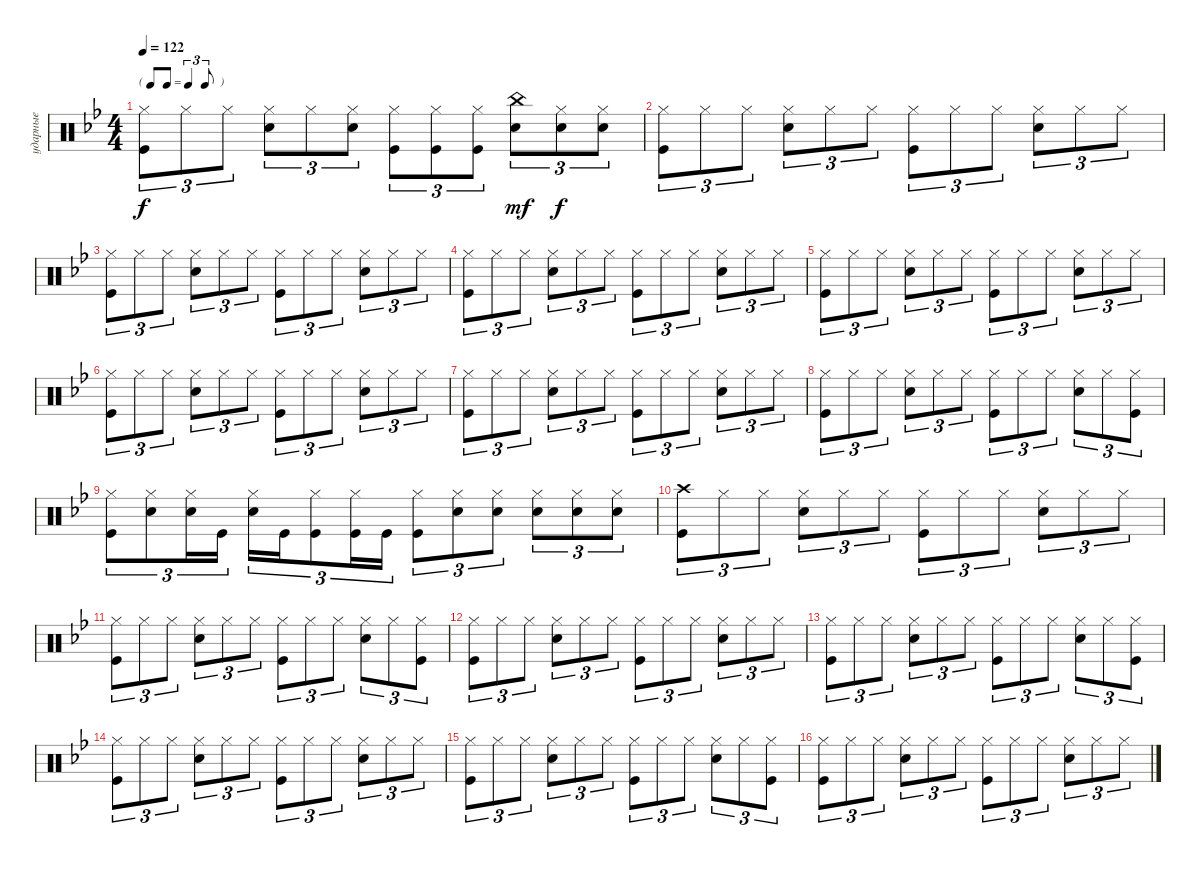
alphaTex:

\track ("ударные" "ударные") {instrument percussion}
\staff {score}
\articulation defaults
\ts (4 4)
\tf triplet8th
\tempo 122
\clef neutral
\ks gminor
("Hi-Hat (closed)" "Kick (hit)").8{tu (3 2) dy f} "Hi-Hat (closed)".8{tu (3 2)} "Hi-Hat (closed)".8{tu (3 2)} ("Hi-Hat (closed)" "Snare (hit) 2").8{tu (3 2)} "Hi-Hat (closed)".8{tu (3 2)} ("Hi-Hat (closed)" "Snare (hit) 2").8{tu (3 2)} ("Hi-Hat (closed)" "Kick (hit)").8{tu (3 2)} ("Hi-Hat (closed)" "Kick (hit)").8{tu (3 2)} ("Hi-Hat (closed)" "Kick (hit)").8{tu (3 2)} ("Snare (hit) 2" "China (hit)").8{tu (3 2) dy mf} ("Hi-Hat (closed)" "Snare (hit) 2").8{tu (3 2) dy f} ("Hi-Hat (closed)" "Snare (hit) 2").8{tu (3 2)} |
("Hi-Hat (closed)" "Kick (hit)").8{tu (3 2)} "Hi-Hat (closed)".8{tu (3 2)} "Hi-Hat (closed)".8{tu (3 2)} ("Hi-Hat (closed)" "Snare (hit) 2").8{tu (3 2)} "Hi-Hat (closed)".8{tu (3 2)} "Hi-Hat (closed)".8{tu (3 2)} ("Hi-Hat (closed)" "Kick (hit)").8{tu (3 2)} "Hi-Hat (closed)".8{tu (3 2)} "Hi-Hat (closed)".8{tu (3 2)} ("Hi-Hat (closed)" "Snare (hit) 2").8{tu (3 2)} "Hi-Hat (closed)".8{tu (3 2)} "Hi-Hat (closed)".8{tu (3 2)} |
("Hi-Hat (closed)" "Kick (hit)").8{tu (3 2)} "Hi-Hat (closed)".8{tu (3 2)} "Hi-Hat (closed)".8{tu (3 2)} ("Hi-Hat (closed)" "Snare (hit) 2").8{tu (3 2)} "Hi-Hat (closed)".8{tu (3 2)} "Hi-Hat (closed)".8{tu (3 2)} ("Hi-Hat (closed)" "Kick (hit)").8{tu (3 2)} "Hi-Hat (closed)".8{tu (3 2)} "Hi-Hat (closed)".8{tu (3 2)} ("Hi-Hat (closed)" "Snare (hit) 2").8{tu (3 2)} "Hi-Hat (closed)".8{tu (3 2)} "Hi-Hat (closed)".8{tu (3 2)} |
("Hi-Hat (closed)" "Kick (hit)").8{tu (3 2)} "Hi-Hat (closed)".8{tu (3 2)} "Hi-Hat (closed)".8{tu (3 2)} ("Hi-Hat (closed)" "Snare (hit) 2").8{tu (3 2)} "Hi-Hat (closed)".8{tu (3 2)} "Hi-Hat (closed)".8{tu (3 2)} ("Hi-Hat (closed)" "Kick (hit)").8{tu (3 2)} "Hi-Hat (closed)".8{tu (3 2)} "Hi-Hat (closed)".8{tu (3 2)} ("Hi-Hat (closed)" "Snare (hit) 2").8{tu (3 2)} "Hi-Hat (closed)".8{tu (3 2)} "Hi-Hat (closed)".8{tu (3 2)} |
("Hi-Hat (closed)" "Kick (hit)").8{tu (3 2)} "Hi-Hat (closed)".8{tu (3 2)} "Hi-Hat (closed)".8{tu (3 2)} ("Hi-Hat (closed)" "Snare (hit) 2").8{tu (3 2)} "Hi-Hat (closed)".8{tu (3 2)} "Hi-Hat (closed)".8{tu (3 2)} ("Hi-Hat (closed)" "Kick (hit)").8{tu (3 2)} "Hi-Hat (closed)".8{tu (3 2)} "Hi-Hat (closed)".8{tu (3 2)} ("Hi-Hat (closed)" "Snare (hit) 2").8{tu (3 2)} "Hi-Hat (closed)".8{tu (3 2)} "Hi-Hat (closed)".8{tu (3 2)} |
("Hi-Hat (closed)" "Kick (hit)").8{tu (3 2)} "Hi-Hat (closed)".8{tu (3 2)} "Hi-Hat (closed)".8{tu (3 2)} ("Hi-Hat (closed)" "Snare (hit) 2").8{tu (3 2)} "Hi-Hat (closed)".8{tu (3 2)} "Hi-Hat (closed)".8{tu (3 2)} ("Hi-Hat (closed)" "Kick (hit)").8{tu (3 2)} "Hi-Hat (closed)".8{tu (3 2)} "Hi-Hat (closed)".8{tu (3 2)} ("Hi-Hat (closed)" "Snare (hit) 2").8{tu (3 2)} "Hi-Hat (closed)".8{tu (3 2)} "Hi-Hat (closed)".8{tu (3 2)} |
("Hi-Hat (closed)" "Kick (hit)").8{tu (3 2)} "Hi-Hat (closed)".8{tu (3 2)} "Hi-Hat (closed)".8{tu (3 2)} ("Hi-Hat (closed)" "Snare (hit) 2").8{tu (3 2)} "Hi-Hat (closed)".8{tu (3 2)} "Hi-Hat (closed)".8{tu (3 2)} ("Hi-Hat (closed)" "Kick (hit)").8{tu (3 2)} "Hi-Hat (closed)".8{tu (3 2)} "Hi-Hat (closed)".8{tu (3 2)} ("Hi-Hat (closed)" "Snare (hit) 2").8{tu (3 2)} "Hi-Hat (closed)".8{tu (3 2)} "Hi-Hat (closed)".8{tu (3 2)} |
("Hi-Hat (closed)" "Kick (hit)").8{tu (3 2)} "Hi-Hat (closed)".8{tu (3 2)} "Hi-Hat (closed)".8{tu (3 2)} ("Hi-Hat (closed)" "Snare (hit) 2").8{tu (3 2)} "Hi-Hat (closed)".8{tu (3 2)} "Hi-Hat (closed)".8{tu (3 2)} ("Hi-Hat (closed)" "Kick (hit)").8{tu (3 2)} "Hi-Hat (closed)".8{tu (3 2)} "Hi-Hat (closed)".8{tu (3 2)} ("Hi-Hat (closed)" "Snare (hit) 2").8{tu (3 2)} "Hi-Hat (closed)".8{tu (3 2)} ("Hi-Hat (closed)" "Kick (hit)").8{tu (3 2)} |
("Hi-Hat (closed)" "Kick (hit)").8{tu (3 2)} ("Hi-Hat (closed)" "Snare (hit) 2").8{tu (3 2)} ("Hi-Hat (closed)" "Snare (hit) 2").16{tu (3 2)} "Kick (hit)".16{tu (3 2)} ("Hi-Hat (closed)" "Snare (hit) 2").16{tu (3 2)} "Kick (hit)".16{tu (3 2)} ("Hi-Hat (closed)" "Kick (hit)").8{tu (3 2)} ("Hi-Hat (closed)" "Kick (hit)").16{tu (3 2)} "Kick (hit)".16{tu (3 2)} ("Hi-Hat (closed)" "Kick (hit)").8{tu (3 2)} ("Hi-Hat (closed)" "Snare (hit) 2").8{tu (3 2)} ("Hi-Hat (closed)" "Snare (hit) 2").8{tu (3 2)} ("Hi-Hat (closed)" "Snare (hit) 2").8{tu (3 2)} ("Hi-Hat (closed)" "Snare (hit) 2").8{tu (3 2)} ("Hi-Hat (closed)" "Snare (hit) 2").8{tu (3 2)} |
("Kick (hit)" "Crash high (hit)").8{tu (3 2)} "Hi-Hat (closed)".8{tu (3 2)} "Hi-Hat (closed)".8{tu (3 2)} ("Hi-Hat (closed)" "Snare (hit) 2").8{tu (3 2)} "Hi-Hat (closed)".8{tu (3 2)} "Hi-Hat (closed)".8{tu (3 2)} ("Hi-Hat (closed)" "Kick (hit)").8{tu (3 2)} "Hi-Hat (closed)".8{tu (3 2)} "Hi-Hat (closed)".8{tu (3 2)} ("Hi-Hat (closed)" "Snare (hit) 2").8{tu (3 2)} "Hi-Hat (closed)".8{tu (3 2)} "Hi-Hat (closed)".8{tu (3 2)} |
("Hi-Hat (closed)" "Kick (hit)").8{tu (3 2)} "Hi-Hat (closed)".8{tu (3 2)} "Hi-Hat (closed)".8{tu (3 2)} ("Hi-Hat (closed)" "Snare (hit) 2").8{tu (3 2)} "Hi-Hat (closed)".8{tu (3 2)} "Hi-Hat (closed)".8{tu (3 2)} ("Hi-Hat (closed)" "Kick (hit)").8{tu (3 2)} "Hi-Hat (closed)".8{tu (3 2)} "Hi-Hat (closed)".8{tu (3 2)} ("Hi-Hat (closed)" "Snare (hit) 2").8{tu (3 2)} "Hi-Hat (closed)".8{tu (3 2)} ("Hi-Hat (closed)" "Kick (hit)").8{tu (3 2)} |
("Hi-Hat (closed)" "Kick (hit)").8{tu (3 2)} "Hi-Hat (closed)".8{tu (3 2)} "Hi-Hat (closed)".8{tu (3 2)} ("Hi-Hat (closed)" "Snare (hit) 2").8{tu (3 2)} "Hi-Hat (closed)".8{tu (3 2)} "Hi-Hat (closed)".8{tu (3 2)} ("Hi-Hat (closed)" "Kick (hit)").8{tu (3 2)} "Hi-Hat (closed)".8{tu (3 2)} "Hi-Hat (closed)".8{tu (3 2)} ("Hi-Hat (closed)" "Snare (hit) 2").8{tu (3 2)} "Hi-Hat (closed)".8{tu (3 2)} "Hi-Hat (closed)".8{tu (3 2)} |
("Hi-Hat (closed)" "Kick (hit)").8{tu (3 2)} "Hi-Hat (closed)".8{tu (3 2)} "Hi-Hat (closed)".8{tu (3 2)} ("Hi-Hat (closed)" "Snare (hit) 2").8{tu (3 2)} "Hi-Hat (closed)".8{tu (3 2)} "Hi-Hat (closed)".8{tu (3 2)} ("Hi-Hat (closed)" "Kick (hit)").8{tu (3 2)} "Hi-Hat (closed)".8{tu (3 2)} "Hi-Hat (closed)".8{tu (3 2)} ("Hi-Hat (closed)" "Snare (hit) 2").8{tu (3 2)} "Hi-Hat (closed)".8{tu (3 2)} ("Hi-Hat (closed)" "Kick (hit)").8{tu (3 2)} |
("Hi-Hat (closed)" "Kick (hit)").8{tu (3 2)} "Hi-Hat (closed)".8{tu (3 2)} "Hi-Hat (closed)".8{tu (3 2)} ("Hi-Hat (closed)" "Snare (hit) 2").8{tu (3 2)} "Hi-Hat (closed)".8{tu (3 2)} "Hi-Hat (closed)".8{tu (3 2)} ("Hi-Hat (closed)" "Kick (hit)").8{tu (3 2)} "Hi-Hat (closed)".8{tu (3 2)} "Hi-Hat (closed)".8{tu (3 2)} ("Hi-Hat (closed)" "Snare (hit) 2").8{tu (3 2)} "Hi-Hat (closed)".8{tu (3 2)} "Hi-Hat (closed)".8{tu (3 2)} |
("Hi-Hat (closed)" "Kick (hit)").8{tu (3 2)} "Hi-Hat (closed)".8{tu (3 2)} "Hi-Hat (closed)".8{tu (3 2)} ("Hi-Hat (closed)" "Snare (hit) 2").8{tu (3 2)} "Hi-Hat (closed)".8{tu (3 2)} "Hi-Hat (closed)".8{tu (3 2)} ("Hi-Hat (closed)" "Kick (hit)").8{tu (3 2)} "Hi-Hat (closed)".8{tu (3 2)} "Hi-Hat (closed)".8{tu (3 2)} ("Hi-Hat (closed)" "Snare (hit) 2").8{tu (3 2)} "Hi-Hat (closed)".8{tu (3 2)} ("Hi-Hat (closed)" "Kick (hit)").8{tu (3 2)} |
("Hi-Hat (closed)" "Kick (hit)").8{tu (3 2)} "Hi-Hat (closed)".8{tu (3 2)} "Hi-Hat (closed)".8{tu (3 2)} ("Hi-Hat (closed)" "Snare (hit) 2").8{tu (3 2)} "Hi-Hat (closed)".8{tu (3 2)} "Hi-Hat (closed)".8{tu (3 2)} ("Hi-Hat (closed)" "Kick (hit)").8{tu (3 2)} "Hi-Hat (closed)".8{tu (3 2)} "Hi-Hat (closed)".8{tu (3 2)} ("Hi-Hat (closed)" "Snare (hit) 2").8{tu (3 2)} "Hi-Hat (closed)".8{tu (3 2)} "Hi-Hat (closed)".8{tu (3 2)}
